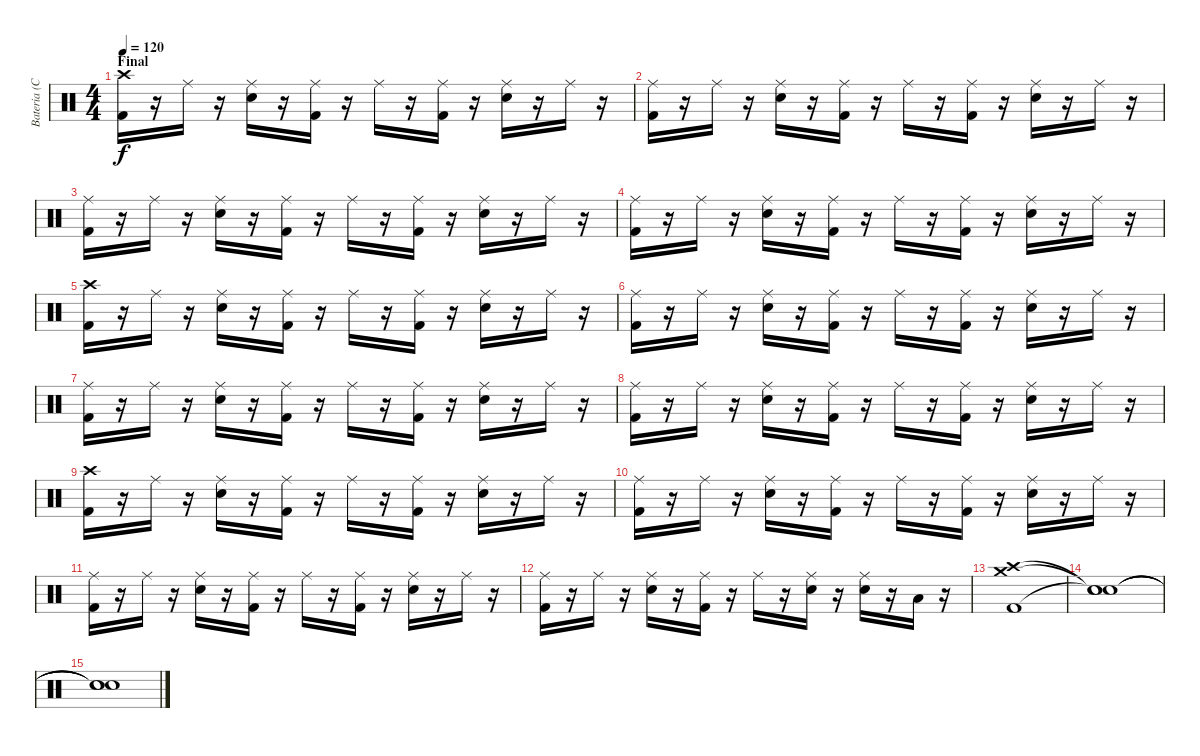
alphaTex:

\track ("Bateria (Ciro)" "Bateria (C") {instrument percussion}
\staff {score}
\articulation defaults
\ts (4 4)
\section ("" "Final")
\tempo 120
\clef neutral
\ks c
("Crash high (hit)" "Kick (hit) 2").16{dy f} r.16 "Ride (middle)".16 r.16 ("Ride (middle)" "Snare (hit) 2").16 r.16 ("Ride (middle)" "Kick (hit) 2").16 r.16 "Ride (middle)".16 r.16 ("Ride (middle)" "Kick (hit) 2").16 r.16 ("Ride (middle)" "Snare (hit) 2").16 r.16 "Ride (middle)".16 r.16 |
("Ride (middle)" "Kick (hit) 2").16 r.16 "Ride (middle)".16 r.16 ("Ride (middle)" "Snare (hit) 2").16 r.16 ("Ride (middle)" "Kick (hit) 2").16 r.16 "Ride (middle)".16 r.16 ("Ride (middle)" "Kick (hit) 2").16 r.16 ("Ride (middle)" "Snare (hit) 2").16 r.16 "Ride (middle)".16 r.16 |
("Ride (middle)" "Kick (hit) 2").16 r.16 "Ride (middle)".16 r.16 ("Ride (middle)" "Snare (hit) 2").16 r.16 ("Ride (middle)" "Kick (hit) 2").16 r.16 "Ride (middle)".16 r.16 ("Ride (middle)" "Kick (hit) 2").16 r.16 ("Ride (middle)" "Snare (hit) 2").16 r.16 "Ride (middle)".16 r.16 |
("Ride (middle)" "Kick (hit) 2").16 r.16 "Ride (middle)".16 r.16 ("Ride (middle)" "Snare (hit) 2").16 r.16 ("Ride (middle)" "Kick (hit) 2").16 r.16 "Ride (middle)".16 r.16 ("Ride (middle)" "Kick (hit) 2").16 r.16 ("Ride (middle)" "Snare (hit) 2").16 r.16 "Ride (middle)".16 r.16 |
("Crash high (hit)" "Kick (hit) 2").16 r.16 "Ride (middle)".16 r.16 ("Ride (middle)" "Snare (hit) 2").16 r.16 ("Ride (middle)" "Kick (hit) 2").16 r.16 "Ride (middle)".16 r.16 ("Ride (middle)" "Kick (hit) 2").16 r.16 ("Ride (middle)" "Snare (hit) 2").16 r.16 "Ride (middle)".16 r.16 |
("Ride (middle)" "Kick (hit) 2").16 r.16 "Ride (middle)".16 r.16 ("Ride (middle)" "Snare (hit) 2").16 r.16 ("Ride (middle)" "Kick (hit) 2").16 r.16 "Ride (middle)".16 r.16 ("Ride (middle)" "Kick (hit) 2").16 r.16 ("Ride (middle)" "Snare (hit) 2").16 r.16 "Ride (middle)".16 r.16 |
("Ride (middle)" "Kick (hit) 2").16 r.16 "Ride (middle)".16 r.16 ("Ride (middle)" "Snare (hit) 2").16 r.16 ("Ride (middle)" "Kick (hit) 2").16 r.16 "Ride (middle)".16 r.16 ("Ride (middle)" "Kick (hit) 2").16 r.16 ("Ride (middle)" "Snare (hit) 2").16 r.16 "Ride (middle)".16 r.16 |
("Ride (middle)" "Kick (hit) 2").16 r.16 "Ride (middle)".16 r.16 ("Ride (middle)" "Snare (hit) 2").16 r.16 ("Ride (middle)" "Kick (hit) 2").16 r.16 "Ride (middle)".16 r.16 ("Ride (middle)" "Kick (hit) 2").16 r.16 ("Ride (middle)" "Snare (hit) 2").16 r.16 "Ride (middle)".16 r.16 |
("Crash high (hit)" "Kick (hit) 2").16 r.16 "Ride (middle)".16 r.16 ("Ride (middle)" "Snare (hit) 2").16 r.16 ("Ride (middle)" "Kick (hit) 2").16 r.16 "Ride (middle)".16 r.16 ("Ride (middle)" "Kick (hit) 2").16 r.16 ("Ride (middle)" "Snare (hit) 2").16 r.16 "Ride (middle)".16 r.16 |
("Ride (middle)" "Kick (hit) 2").16 r.16 "Ride (middle)".16 r.16 ("Ride (middle)" "Snare (hit) 2").16 r.16 ("Ride (middle)" "Kick (hit) 2").16 r.16 "Ride (middle)".16 r.16 ("Ride (middle)" "Kick (hit) 2").16 r.16 ("Ride (middle)" "Snare (hit) 2").16 r.16 "Ride (middle)".16 r.16 |
("Ride (middle)" "Kick (hit) 2").16 r.16 "Ride (middle)".16 r.16 ("Ride (middle)" "Snare (hit) 2").16 r.16 ("Ride (middle)" "Kick (hit) 2").16 r.16 "Ride (middle)".16 r.16 ("Ride (middle)" "Kick (hit) 2").16 r.16 ("Ride (middle)" "Snare (hit) 2").16 r.16 "Ride (middle)".16 r.16 |
("Ride (middle)" "Kick (hit) 2").16 r.16 "Ride (middle)".16 r.16 ("Ride (middle)" "Snare (hit) 2").16 r.16 ("Ride (middle)" "Kick (hit) 2").16 r.16 "Ride (middle)".16 r.16 ("Ride (middle)" "Snare (hit) 2").16 r.16 ("Ride (middle)" "Snare (hit) 2").16 r.16 "Low Floor Tom (hit)".16 r.16 |
("Crash medium (hit)" "Crash high (hit)" "Kick (hit) 2").1 |
("Snare (hit)"{t} "Snare (hit)"{t} "Snare (hit)"{t}).1 |
("Snare (hit)"{t} "Snare (hit)"{t} "Snare (hit)"{t}).1
